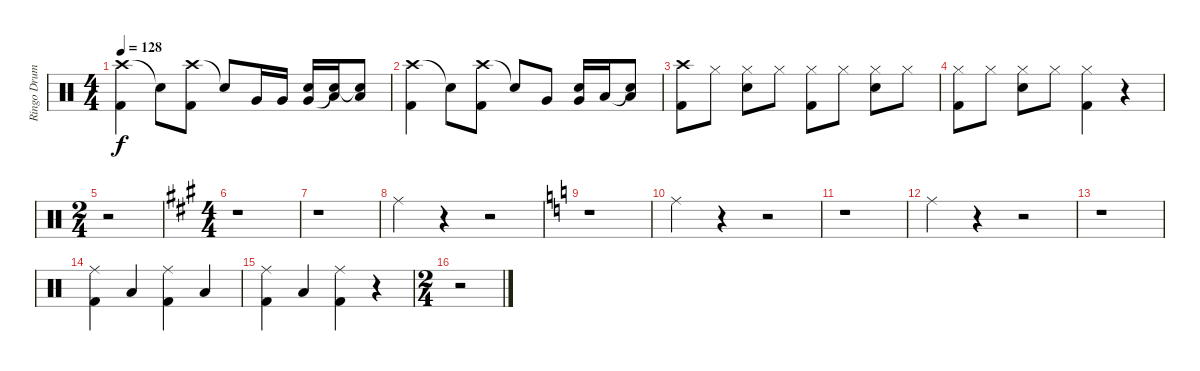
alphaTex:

\track ("Ringo Drums" "Ringo Drum") {instrument percussion}
\staff {score}
\articulation defaults
\ts (4 4)
\tempo 128
\clef neutral
\ks c
("Crash high (hit)" "Kick (hit) 2").4{dy f} "Snare (hit)"{t}.8 ("Crash high (hit)" "Kick (hit) 2").8 "Snare (hit)"{t}.8 "Very Low Tom (hit)".16 "Very Low Tom (hit)".16 ("Very Low Tom (hit)" "Snare (hit) 2").16 ("Snare (hit)"{t} "Low Floor Tom (hit)").16 ("Snare (hit)"{t} "Low Floor Tom (hit)").8 |
("Crash high (hit)" "Kick (hit) 2").4 "Snare (hit)"{t}.8 ("Crash high (hit)" "Kick (hit) 2").8 "Snare (hit)"{t}.8 "Very Low Tom (hit)".8 ("Very Low Tom (hit)" "Snare (hit) 2").16 "Low Floor Tom (hit)".16 ("Snare (hit)"{t} "Low Floor Tom (hit)").8 |
("Crash high (hit)" "Kick (hit) 2").8 "Hi-Hat (closed)".8 ("Hi-Hat (closed)" "Snare (hit) 2").8 "Hi-Hat (closed)".8 ("Hi-Hat (closed)" "Kick (hit) 2").8 "Hi-Hat (closed)".8 ("Hi-Hat (closed)" "Snare (hit) 2").8 "Hi-Hat (closed)".8 |
("Hi-Hat (closed)" "Kick (hit) 2").8 "Hi-Hat (closed)".8 ("Hi-Hat (closed)" "Snare (hit) 2").8 "Hi-Hat (closed)".8 ("Hi-Hat (closed)" "Kick (hit) 2").4 r.4 |
\ts (2 4)
r.2 |
\ts (4 4)
\ks a
r.1 |
r.1 |
"Ride (middle)".4 r.4 r.2 |
\ks c
r.1 |
"Ride (middle)".4 r.4 r.2 |
r.1 |
"Ride (middle)".4 r.4 r.2 |
r.1 |
("Ride (middle)" "Kick (hit) 2").4 "Low Floor Tom (hit)".4 ("Ride (middle)" "Kick (hit) 2").4 "Low Floor Tom (hit)".4 |
("Ride (middle)" "Kick (hit) 2").4 "Low Floor Tom (hit)".4 ("Ride (middle)" "Kick (hit) 2").4 r.4 |
\ts (2 4)
r.2
